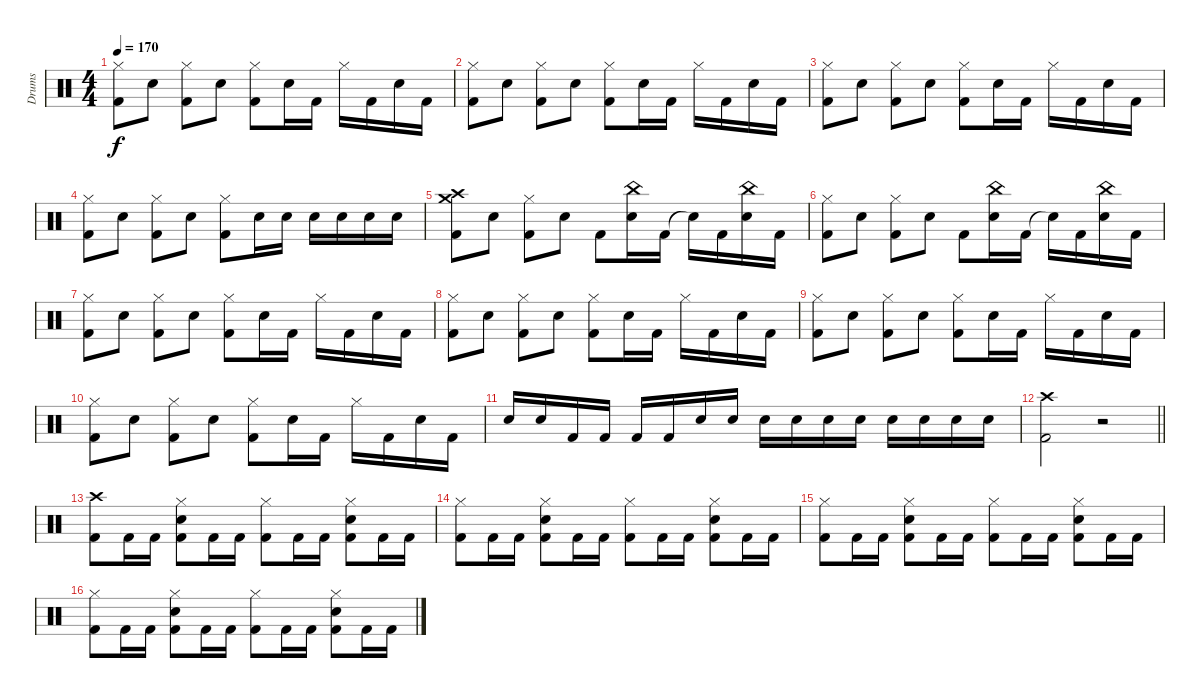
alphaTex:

\track ("Drums" "Drums") {instrument percussion}
\staff {score}
\articulation defaults
\ts (4 4)
\tempo 170
\clef neutral
\ks c
("Hi-Hat (closed)" "Kick (hit) 2").8{dy f} "Snare (hit) 2".8 ("Hi-Hat (closed)" "Kick (hit) 2").8 "Snare (hit) 2".8 ("Hi-Hat (closed)" "Kick (hit) 2").8 "Snare (hit) 2".16 "Kick (hit) 2".16 "Hi-Hat (closed)".16 "Kick (hit) 2".16 "Snare (hit) 2".16 "Kick (hit) 2".16 |
("Hi-Hat (closed)" "Kick (hit) 2").8 "Snare (hit) 2".8 ("Hi-Hat (closed)" "Kick (hit) 2").8 "Snare (hit) 2".8 ("Hi-Hat (closed)" "Kick (hit) 2").8 "Snare (hit) 2".16 "Kick (hit) 2".16 "Hi-Hat (closed)".16 "Kick (hit) 2".16 "Snare (hit) 2".16 "Kick (hit) 2".16 |
("Hi-Hat (closed)" "Kick (hit) 2").8 "Snare (hit) 2".8 ("Hi-Hat (closed)" "Kick (hit) 2").8 "Snare (hit) 2".8 ("Hi-Hat (closed)" "Kick (hit) 2").8 "Snare (hit) 2".16 "Kick (hit) 2".16 "Hi-Hat (closed)".16 "Kick (hit) 2".16 "Snare (hit) 2".16 "Kick (hit) 2".16 |
("Hi-Hat (closed)" "Kick (hit) 2").8 "Snare (hit) 2".8 ("Hi-Hat (closed)" "Kick (hit) 2").8 "Snare (hit) 2".8 ("Hi-Hat (closed)" "Kick (hit) 2").8 "Snare (hit) 2".16 "Snare (hit) 2".16 "Snare (hit) 2".16 "Snare (hit) 2".16 "Snare (hit) 2".16 "Snare (hit) 2".16 |
("Crash high (hit)" "Crash medium (hit)" "Kick (hit) 2").8 "Snare (hit) 2".8 ("Hi-Hat (closed)" "Kick (hit) 2").8 "Snare (hit) 2".8 "Kick (hit) 2".8 ("China (hit)" "Snare (hit) 2").16 "Kick (hit) 2".16 "Snare (hit)"{t}.16 "Kick (hit) 2".16 ("China (hit)" "Snare (hit) 2").16 "Kick (hit) 2".16 |
("Hi-Hat (closed)" "Kick (hit) 2").8 "Snare (hit) 2".8 ("Hi-Hat (closed)" "Kick (hit) 2").8 "Snare (hit) 2".8 "Kick (hit) 2".8 ("China (hit)" "Snare (hit) 2").16 "Kick (hit) 2".16 "Snare (hit)"{t}.16 "Kick (hit) 2".16 ("China (hit)" "Snare (hit) 2").16 "Kick (hit) 2".16 |
("Hi-Hat (closed)" "Kick (hit) 2").8 "Snare (hit) 2".8 ("Hi-Hat (closed)" "Kick (hit) 2").8 "Snare (hit) 2".8 ("Hi-Hat (closed)" "Kick (hit) 2").8 "Snare (hit) 2".16 "Kick (hit) 2".16 "Hi-Hat (closed)".16 "Kick (hit) 2".16 "Snare (hit) 2".16 "Kick (hit) 2".16 |
("Hi-Hat (closed)" "Kick (hit) 2").8 "Snare (hit) 2".8 ("Hi-Hat (closed)" "Kick (hit) 2").8 "Snare (hit) 2".8 ("Hi-Hat (closed)" "Kick (hit) 2").8 "Snare (hit) 2".16 "Kick (hit) 2".16 "Hi-Hat (closed)".16 "Kick (hit) 2".16 "Snare (hit) 2".16 "Kick (hit) 2".16 |
("Hi-Hat (closed)" "Kick (hit) 2").8 "Snare (hit) 2".8 ("Hi-Hat (closed)" "Kick (hit) 2").8 "Snare (hit) 2".8 ("Hi-Hat (closed)" "Kick (hit) 2").8 "Snare (hit) 2".16 "Kick (hit) 2".16 "Hi-Hat (closed)".16 "Kick (hit) 2".16 "Snare (hit) 2".16 "Kick (hit) 2".16 |
("Hi-Hat (closed)" "Kick (hit) 2").8 "Snare (hit) 2".8 ("Hi-Hat (closed)" "Kick (hit) 2").8 "Snare (hit) 2".8 ("Hi-Hat (closed)" "Kick (hit) 2").8 "Snare (hit) 2".16 "Kick (hit) 2".16 "Hi-Hat (closed)".16 "Kick (hit) 2".16 "Snare (hit) 2".16 "Kick (hit) 2".16 |
"Snare (hit) 2".16 "Snare (hit) 2".16 "Kick (hit) 2".16 "Kick (hit) 2".16 "Kick (hit) 2".16 "Kick (hit) 2".16 "Snare (hit) 2".16 "Snare (hit) 2".16 "Snare (hit) 2".16 "Snare (hit) 2".16 "Snare (hit) 2".16 "Snare (hit) 2".16 "Snare (hit) 2".16 "Snare (hit) 2".16 "Snare (hit) 2".16 "Snare (hit) 2".16 |
\barLineRight lightlight
("Crash high (hit)" "Kick (hit) 2").2 r.2 |
("Crash high (hit)" "Kick (hit) 2").8 "Kick (hit) 2".16 "Kick (hit) 2".16 ("Hi-Hat (closed)" "Snare (hit) 2" "Kick (hit) 2").8 "Kick (hit) 2".16 "Kick (hit) 2".16 ("Hi-Hat (closed)" "Kick (hit) 2").8 "Kick (hit) 2".16 "Kick (hit) 2".16 ("Hi-Hat (closed)" "Snare (hit) 2" "Kick (hit) 2").8 "Kick (hit) 2".16 "Kick (hit) 2".16 |
("Hi-Hat (closed)" "Kick (hit) 2").8 "Kick (hit) 2".16 "Kick (hit) 2".16 ("Hi-Hat (closed)" "Snare (hit) 2" "Kick (hit) 2").8 "Kick (hit) 2".16 "Kick (hit) 2".16 ("Hi-Hat (closed)" "Kick (hit) 2").8 "Kick (hit) 2".16 "Kick (hit) 2".16 ("Hi-Hat (closed)" "Snare (hit) 2" "Kick (hit) 2").8 "Kick (hit) 2".16 "Kick (hit) 2".16 |
("Hi-Hat (closed)" "Kick (hit) 2").8 "Kick (hit) 2".16 "Kick (hit) 2".16 ("Hi-Hat (closed)" "Snare (hit) 2" "Kick (hit) 2").8 "Kick (hit) 2".16 "Kick (hit) 2".16 ("Hi-Hat (closed)" "Kick (hit) 2").8 "Kick (hit) 2".16 "Kick (hit) 2".16 ("Hi-Hat (closed)" "Snare (hit) 2" "Kick (hit) 2").8 "Kick (hit) 2".16 "Kick (hit) 2".16 |
("Hi-Hat (closed)" "Kick (hit) 2").8 "Kick (hit) 2".16 "Kick (hit) 2".16 ("Hi-Hat (closed)" "Snare (hit) 2" "Kick (hit) 2").8 "Kick (hit) 2".16 "Kick (hit) 2".16 ("Hi-Hat (closed)" "Kick (hit) 2").8 "Kick (hit) 2".16 "Kick (hit) 2".16 ("Hi-Hat (closed)" "Snare (hit) 2" "Kick (hit) 2").8 "Kick (hit) 2".16 "Kick (hit) 2".16
